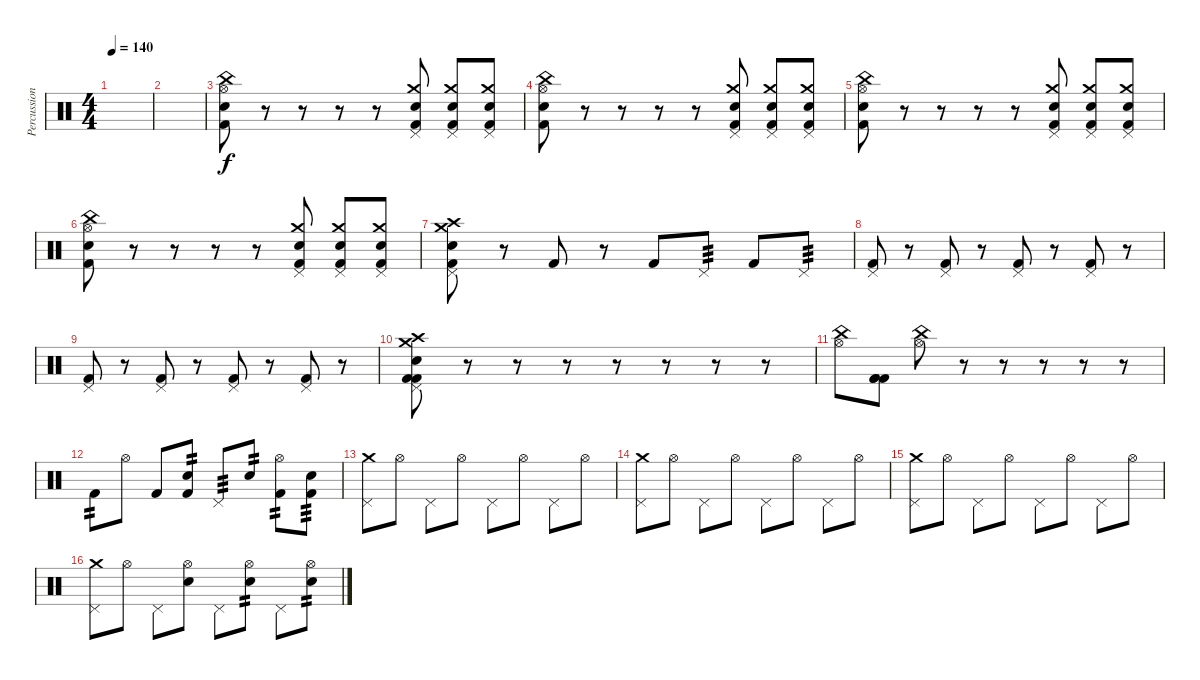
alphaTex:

\track ("Percussions" "Percussion") {instrument percussion}
\staff {score}
\articulation defaults
\ts (4 4)
\tempo 140
\clef neutral
\ks c
|
|
("China (hit)" "Snare (hit) 2" "Hi-Hat (open)" "Kick (hit) 2").8{dy f} r.8 r.8 r.8 r.8 ("Crash medium (hit)" "Snare (hit) 2" "Pedal Hi-Hat (hit)" "Kick (hit) 2").8 ("Crash medium (hit)" "Snare (hit) 2" "Pedal Hi-Hat (hit)" "Kick (hit) 2").8 ("Crash medium (hit)" "Snare (hit) 2" "Pedal Hi-Hat (hit)" "Kick (hit) 2").8 |
("China (hit)" "Snare (hit) 2" "Hi-Hat (open)" "Kick (hit) 2").8 r.8 r.8 r.8 r.8 ("Crash medium (hit)" "Snare (hit) 2" "Pedal Hi-Hat (hit)" "Kick (hit) 2").8 ("Crash medium (hit)" "Snare (hit) 2" "Pedal Hi-Hat (hit)" "Kick (hit) 2").8 ("Crash medium (hit)" "Snare (hit) 2" "Pedal Hi-Hat (hit)" "Kick (hit) 2").8 |
("China (hit)" "Snare (hit) 2" "Hi-Hat (open)" "Kick (hit) 2").8 r.8 r.8 r.8 r.8 ("Crash medium (hit)" "Snare (hit) 2" "Pedal Hi-Hat (hit)" "Kick (hit) 2").8 ("Crash medium (hit)" "Snare (hit) 2" "Pedal Hi-Hat (hit)" "Kick (hit) 2").8 ("Crash medium (hit)" "Snare (hit) 2" "Pedal Hi-Hat (hit)" "Kick (hit) 2").8 |
("China (hit)" "Snare (hit) 2" "Hi-Hat (open)" "Kick (hit) 2").8 r.8 r.8 r.8 r.8 ("Crash medium (hit)" "Snare (hit) 2" "Pedal Hi-Hat (hit)" "Kick (hit) 2").8 ("Crash medium (hit)" "Snare (hit) 2" "Pedal Hi-Hat (hit)" "Kick (hit) 2").8 ("Crash medium (hit)" "Snare (hit) 2" "Pedal Hi-Hat (hit)" "Kick (hit) 2").8 |
("Crash high (hit)" "Snare (hit) 2" "Crash medium (hit)" "Pedal Hi-Hat (hit)" "Kick (hit) 2").8 r.8 "Kick (hit) 2".8 r.8 "Kick (hit) 2".8 "Pedal Hi-Hat (hit)".8{tp 3} "Kick (hit) 2".8 "Pedal Hi-Hat (hit)".8{tp 3} |
("Pedal Hi-Hat (hit)" "Kick (hit) 2").8 r.8 ("Pedal Hi-Hat (hit)" "Kick (hit) 2").8 r.8 ("Pedal Hi-Hat (hit)" "Kick (hit) 2").8 r.8 ("Pedal Hi-Hat (hit)" "Kick (hit) 2").8 r.8 |
("Pedal Hi-Hat (hit)" "Kick (hit) 2").8 r.8 ("Pedal Hi-Hat (hit)" "Kick (hit) 2").8 r.8 ("Pedal Hi-Hat (hit)" "Kick (hit) 2").8 r.8 ("Pedal Hi-Hat (hit)" "Kick (hit) 2").8 r.8 |
("Kick (hit) 2" "Crash high (hit)" "Crash medium (hit)" "Pedal Hi-Hat (hit)" "Snare (hit) 2" "Kick (hit) 2").8 r.8 r.8 r.8 r.8 r.8 r.8 r.8 |
("China (hit)" "Hi-Hat (open)").8 ("Kick (hit) 2" "Kick (hit) 2" "Kick (hit) 2").8 ("China (hit)" "Hi-Hat (open)").8 r.8 r.8 r.8 r.8 r.8 |
"Kick (hit) 2".8{tp 2} "Hi-Hat (open)".8 "Kick (hit) 2".8 ("Snare (hit) 2" "Kick (hit) 2").8{tp 2} "Pedal Hi-Hat (hit)".8{tp 3} "Snare (hit) 2".8{tp 2} ("Hi-Hat (open)" "Kick (hit) 2").8{tp 2} ("Snare (hit) 2" "Kick (hit) 2").8{tp 3} |
("Crash medium (hit)" "Pedal Hi-Hat (hit)").8 "Hi-Hat (open)".8 "Pedal Hi-Hat (hit)".8 "Hi-Hat (open)".8 "Pedal Hi-Hat (hit)".8 "Hi-Hat (open)".8 "Pedal Hi-Hat (hit)".8 "Hi-Hat (open)".8 |
("Crash medium (hit)" "Pedal Hi-Hat (hit)").8 "Hi-Hat (open)".8 "Pedal Hi-Hat (hit)".8 "Hi-Hat (open)".8 "Pedal Hi-Hat (hit)".8 "Hi-Hat (open)".8 "Pedal Hi-Hat (hit)".8 "Hi-Hat (open)".8 |
("Crash medium (hit)" "Pedal Hi-Hat (hit)").8 "Hi-Hat (open)".8 "Pedal Hi-Hat (hit)".8 "Hi-Hat (open)".8 "Pedal Hi-Hat (hit)".8 "Hi-Hat (open)".8 "Pedal Hi-Hat (hit)".8 "Hi-Hat (open)".8 |
("Crash medium (hit)" "Pedal Hi-Hat (hit)").8 "Hi-Hat (open)".8 "Pedal Hi-Hat (hit)".8 ("Snare (hit) 2" "Hi-Hat (open)").8 "Pedal Hi-Hat (hit)".8 ("Snare (hit) 2" "Hi-Hat (open)").8{tp 2} "Pedal Hi-Hat (hit)".8 ("Snare (hit) 2" "Hi-Hat (open)").8{tp 2}
